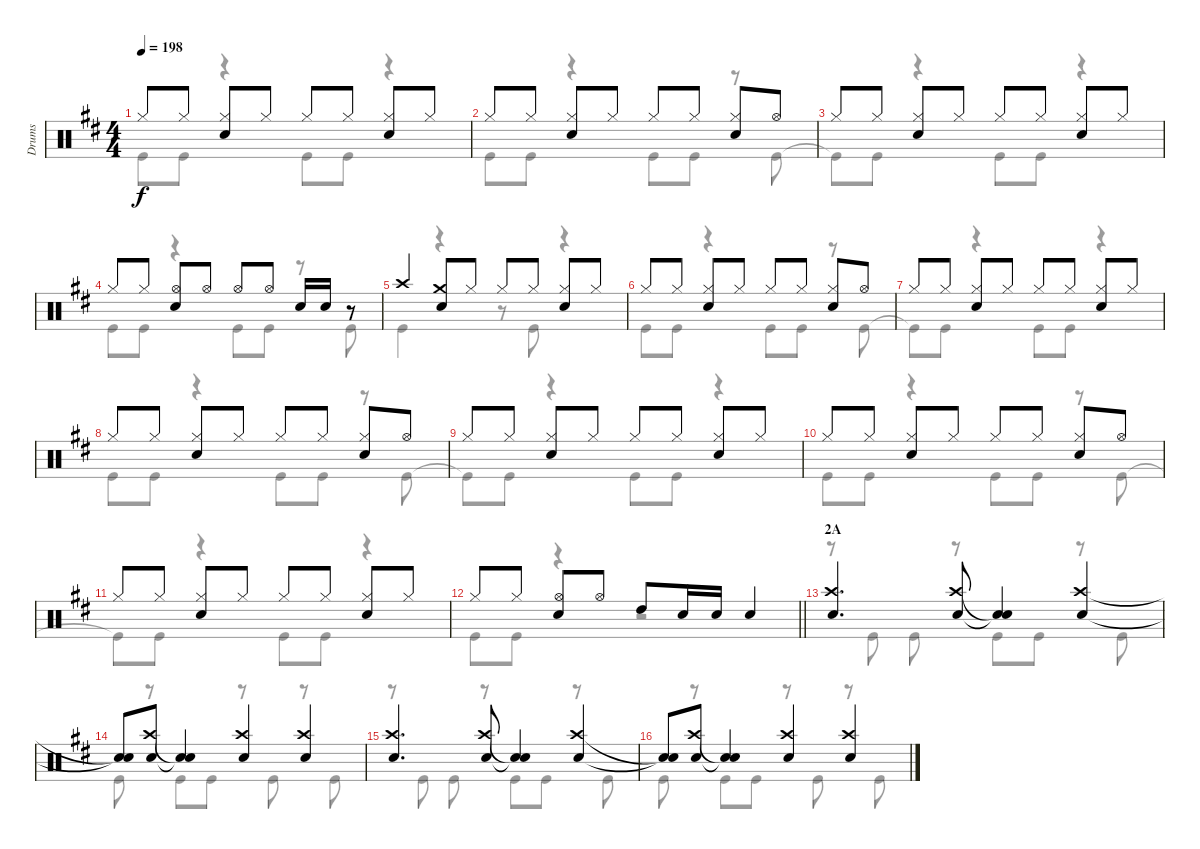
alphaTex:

\track ("Drums" "Drums") {instrument percussion}
\staff {score}
\articulation defaults
\voice
\ts (4 4)
\tempo 198
\clef neutral
\ks d "Hi-Hat (closed)".8{dy f} "Hi-Hat (closed)".8
("Hi-Hat (closed)" "Snare (hit) 2").8 "Hi-Hat (closed)".8 "Hi-Hat (closed)".8 "Hi-Hat (closed)".8 ("Hi-Hat (closed)" "Snare (hit) 2").8 "Hi-Hat (closed)".8 |
"Hi-Hat (closed)".8 "Hi-Hat (closed)".8 ("Hi-Hat (closed)" "Snare (hit) 2").8 "Hi-Hat (closed)".8 "Hi-Hat (closed)".8 "Hi-Hat (closed)".8 ("Hi-Hat (closed)" "Snare (hit) 2").8 "Hi-Hat (open)".8 |
"Hi-Hat (closed)".8 "Hi-Hat (closed)".8 ("Hi-Hat (closed)" "Snare (hit) 2").8 "Hi-Hat (closed)".8 "Hi-Hat (closed)".8 "Hi-Hat (closed)".8 ("Hi-Hat (closed)" "Snare (hit) 2").8 "Hi-Hat (closed)".8 |
"Hi-Hat (closed)".8 "Hi-Hat (closed)".8 ("Hi-Hat (open)" "Snare (hit) 2").8 "Hi-Hat (open)".8 "Hi-Hat (open)".8 "Hi-Hat (open)".8 "Snare (hit) 2".16 "Snare (hit) 2".16 r.8 |
"Crash high (hit)".4 ("Crash medium (hit)" "Snare (hit) 2").8 "Hi-Hat (closed)".8 "Hi-Hat (closed)".8 "Hi-Hat (closed)".8 ("Hi-Hat (closed)" "Snare (hit) 2").8 "Hi-Hat (closed)".8 |
"Hi-Hat (closed)".8 "Hi-Hat (closed)".8 ("Hi-Hat (closed)" "Snare (hit) 2").8 "Hi-Hat (closed)".8 "Hi-Hat (closed)".8 "Hi-Hat (closed)".8 ("Hi-Hat (closed)" "Snare (hit) 2").8 "Hi-Hat (open)".8 |
"Hi-Hat (closed)".8 "Hi-Hat (closed)".8 ("Hi-Hat (closed)" "Snare (hit) 2").8 "Hi-Hat (closed)".8 "Hi-Hat (closed)".8 "Hi-Hat (closed)".8 ("Hi-Hat (closed)" "Snare (hit) 2").8 "Hi-Hat (closed)".8 |
"Hi-Hat (closed)".8 "Hi-Hat (closed)".8 ("Hi-Hat (closed)" "Snare (hit) 2").8 "Hi-Hat (closed)".8 "Hi-Hat (closed)".8 "Hi-Hat (closed)".8 ("Hi-Hat (closed)" "Snare (hit) 2").8 "Hi-Hat (open)".8 |
"Hi-Hat (closed)".8 "Hi-Hat (closed)".8 ("Hi-Hat (closed)" "Snare (hit) 2").8 "Hi-Hat (closed)".8 "Hi-Hat (closed)".8 "Hi-Hat (closed)".8 ("Hi-Hat (closed)" "Snare (hit) 2").8 "Hi-Hat (closed)".8 |
"Hi-Hat (closed)".8 "Hi-Hat (closed)".8 ("Hi-Hat (closed)" "Snare (hit) 2").8 "Hi-Hat (closed)".8 "Hi-Hat (closed)".8 "Hi-Hat (closed)".8 ("Hi-Hat (closed)" "Snare (hit) 2").8 "Hi-Hat (open)".8 |
"Hi-Hat (closed)".8 "Hi-Hat (closed)".8 ("Hi-Hat (closed)" "Snare (hit) 2").8 "Hi-Hat (closed)".8 "Hi-Hat (closed)".8 "Hi-Hat (closed)".8 ("Hi-Hat (closed)" "Snare (hit) 2").8 "Hi-Hat (closed)".8 |
\barLineRight lightlight "Hi-Hat (closed)".8 "Hi-Hat (closed)".8
("Hi-Hat (open)" "Snare (hit) 2").8 "Hi-Hat (open)".8 "High Tom (hit)".8 "Snare (hit) 2".16 "Snare (hit) 2".16 "Snare (hit) 2".4 |
\section ("" "2A")
("Crash high (hit)" "Snare (hit) 2").4{d} ("Crash high (hit)" "Snare (hit) 2").8 ("Snare (hit)"{t} "Snare (hit)"{t}).4 ("Crash high (hit)" "Snare (hit) 2").4 |
("Snare (hit)"{t} "Snare (hit)"{t}).8 ("Crash high (hit)" "Snare (hit) 2").8 ("Snare (hit)"{t} "Snare (hit)"{t}).4 ("Crash high (hit)" "Snare (hit) 2").4 ("Crash high (hit)" "Snare (hit) 2").4 |
("Crash high (hit)" "Snare (hit) 2").4{d} ("Crash high (hit)" "Snare (hit) 2").8 ("Snare (hit)"{t} "Snare (hit)"{t}).4 ("Crash high (hit)" "Snare (hit) 2").4 |
("Snare (hit)"{t} "Snare (hit)"{t}).8 ("Crash high (hit)" "Snare (hit) 2").8 ("Snare (hit)"{t} "Snare (hit)"{t}).4 ("Crash high (hit)" "Snare (hit) 2").4 ("Crash high (hit)" "Snare (hit) 2").4
\voice
\clef neutral
\ottava regular
\simile none
\ks d "Kick (hit)"{t}.8{dy f} "Kick (hit)".8
r.4 "Kick (hit)".8 "Kick (hit)".8 r.4 |
"Kick (hit)".8 "Kick (hit)".8 r.4 "Kick (hit)".8 "Kick (hit)".8 r.8 "Kick (hit)".8 |
"Kick (hit)"{t}.8 "Kick (hit)".8 r.4 "Kick (hit)".8 "Kick (hit)".8 r.4 |
"Kick (hit)".8 "Kick (hit)".8 r.4 "Kick (hit)".8 "Kick (hit)".8 r.8 "Kick (hit)".8 |
"Kick (hit)".4 r.4 r.8 "Kick (hit)".8 r.4 |
"Kick (hit)".8 "Kick (hit)".8 r.4 "Kick (hit)".8 "Kick (hit)".8 r.8 "Kick (hit)".8 |
"Kick (hit)"{t}.8 "Kick (hit)".8 r.4 "Kick (hit)".8 "Kick (hit)".8 r.4 |
"Kick (hit)".8 "Kick (hit)".8 r.4 "Kick (hit)".8 "Kick (hit)".8 r.8 "Kick (hit)".8 |
"Kick (hit)"{t}.8 "Kick (hit)".8 r.4 "Kick (hit)".8 "Kick (hit)".8 r.4 |
"Kick (hit)".8 "Kick (hit)".8 r.4 "Kick (hit)".8 "Kick (hit)".8 r.8 "Kick (hit)".8 |
"Kick (hit)"{t}.8 "Kick (hit)".8 r.4 "Kick (hit)".8 "Kick (hit)".8 r.4 |
\barLineRight lightlight "Kick (hit)".8 "Kick (hit)".8
r.4 r.2 |
r.8 "Kick (hit)".8 "Kick (hit)".8 r.8 "Kick (hit)".8 "Kick (hit)".8 r.8 "Kick (hit)".8 |
"Kick (hit)".8 r.8 "Kick (hit)".8 "Kick (hit)".8 r.8 "Kick (hit)".8 r.8 "Kick (hit)".8 |
r.8 "Kick (hit)".8 "Kick (hit)".8 r.8 "Kick (hit)".8 "Kick (hit)".8 r.8 "Kick (hit)".8 |
"Kick (hit)".8 r.8 "Kick (hit)".8 "Kick (hit)".8 r.8 "Kick (hit)".8 r.8 "Kick (hit)".8
